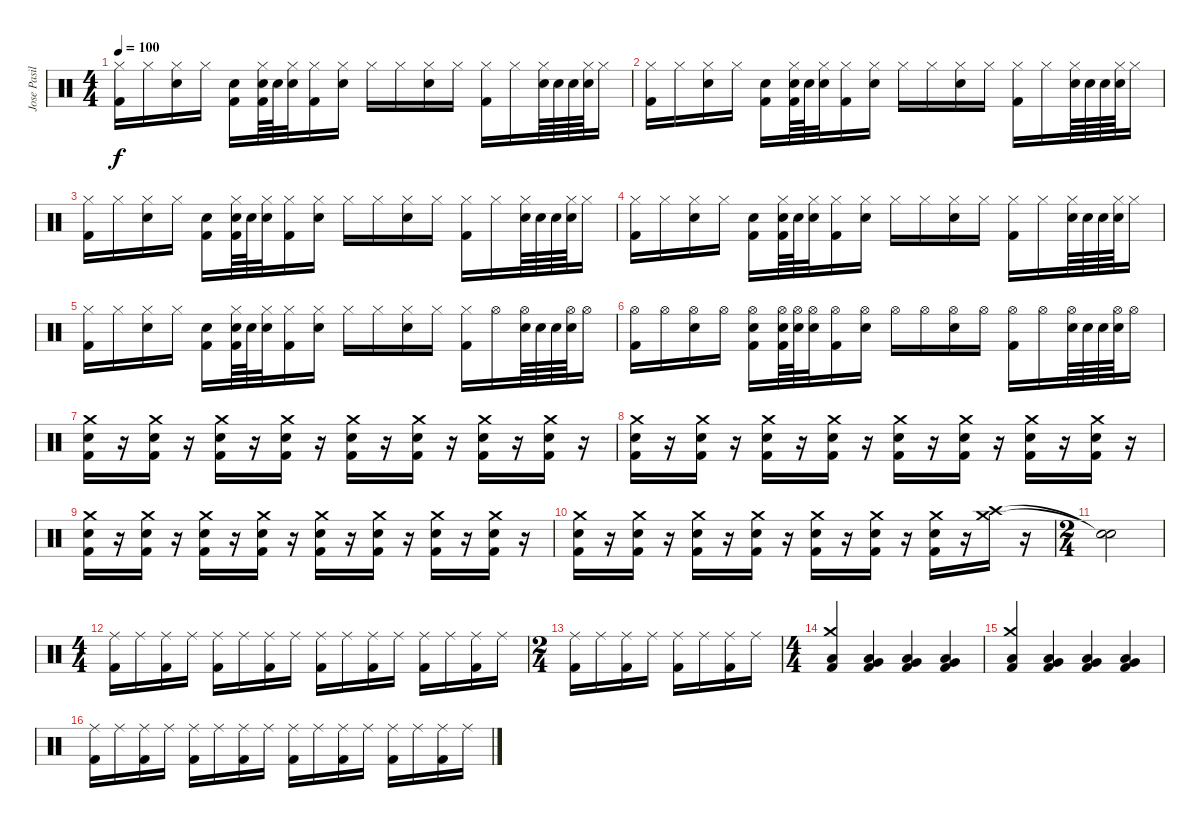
\track ("Jose Pasillas" "Jose Pasil") {instrument percussion}
\staff {score}
\articulation defaults
\ts (4 4)
\tempo 100
\clef neutral
\ks c
("Hi-Hat (closed)" "Kick (hit) 2").16{dy f} "Hi-Hat (closed)".16 ("Electric Snare (hit)" "Hi-Hat (closed)").16 "Hi-Hat (closed)".16 ("Electric Snare (hit)" "Kick (hit) 2").16 ("Kick (hit) 2" "Electric Snare (hit)" "Hi-Hat (closed)").64 "Electric Snare (hit)".64 ("Electric Snare (hit)" "Hi-Hat (closed)").32 ("Hi-Hat (closed)" "Kick (hit) 2").16 ("Electric Snare (hit)" "Hi-Hat (closed)").16 "Hi-Hat (closed)".16 "Hi-Hat (closed)".16 ("Electric Snare (hit)" "Hi-Hat (closed)").16 "Hi-Hat (closed)".16 ("Hi-Hat (closed)" "Kick (hit) 2").16 "Hi-Hat (closed)".16 ("Electric Snare (hit)" "Hi-Hat (closed)").64 "Electric Snare (hit)".64 "Electric Snare (hit)".64 ("Electric Snare (hit)" "Hi-Hat (closed)").64 "Hi-Hat (closed)".16 |
("Hi-Hat (closed)" "Kick (hit) 2").16 "Hi-Hat (closed)".16 ("Electric Snare (hit)" "Hi-Hat (closed)").16 "Hi-Hat (closed)".16 ("Electric Snare (hit)" "Kick (hit) 2").16 ("Kick (hit) 2" "Electric Snare (hit)" "Hi-Hat (closed)").64 "Electric Snare (hit)".64 ("Electric Snare (hit)" "Hi-Hat (closed)").32 ("Hi-Hat (closed)" "Kick (hit) 2").16 ("Electric Snare (hit)" "Hi-Hat (closed)").16 "Hi-Hat (closed)".16 "Hi-Hat (closed)".16 ("Electric Snare (hit)" "Hi-Hat (closed)").16 "Hi-Hat (closed)".16 ("Hi-Hat (closed)" "Kick (hit) 2").16 "Hi-Hat (closed)".16 ("Electric Snare (hit)" "Hi-Hat (closed)").64 "Electric Snare (hit)".64 "Electric Snare (hit)".64 ("Electric Snare (hit)" "Hi-Hat (closed)").64 "Hi-Hat (closed)".16 |
("Hi-Hat (closed)" "Kick (hit) 2").16 "Hi-Hat (closed)".16 ("Electric Snare (hit)" "Hi-Hat (closed)").16 "Hi-Hat (closed)".16 ("Electric Snare (hit)" "Kick (hit) 2").16 ("Kick (hit) 2" "Electric Snare (hit)" "Hi-Hat (closed)").64 "Electric Snare (hit)".64 ("Electric Snare (hit)" "Hi-Hat (closed)").32 ("Hi-Hat (closed)" "Kick (hit) 2").16 ("Electric Snare (hit)" "Hi-Hat (closed)").16 "Hi-Hat (closed)".16 "Hi-Hat (closed)".16 ("Electric Snare (hit)" "Hi-Hat (closed)").16 "Hi-Hat (closed)".16 ("Hi-Hat (closed)" "Kick (hit) 2").16 "Hi-Hat (closed)".16 ("Electric Snare (hit)" "Hi-Hat (closed)").64 "Electric Snare (hit)".64 "Electric Snare (hit)".64 ("Electric Snare (hit)" "Hi-Hat (closed)").64 "Hi-Hat (closed)".16 |
("Hi-Hat (closed)" "Kick (hit) 2").16 "Hi-Hat (closed)".16 ("Electric Snare (hit)" "Hi-Hat (closed)").16 "Hi-Hat (closed)".16 ("Electric Snare (hit)" "Kick (hit) 2").16 ("Kick (hit) 2" "Electric Snare (hit)" "Hi-Hat (closed)").64 "Electric Snare (hit)".64 ("Electric Snare (hit)" "Hi-Hat (closed)").32 ("Hi-Hat (closed)" "Kick (hit) 2").16 ("Electric Snare (hit)" "Hi-Hat (closed)").16 "Hi-Hat (closed)".16 "Hi-Hat (closed)".16 ("Electric Snare (hit)" "Hi-Hat (closed)").16 "Hi-Hat (closed)".16 ("Hi-Hat (closed)" "Kick (hit) 2").16 "Hi-Hat (closed)".16 ("Electric Snare (hit)" "Hi-Hat (closed)").64 "Electric Snare (hit)".64 "Electric Snare (hit)".64 ("Electric Snare (hit)" "Hi-Hat (closed)").64 "Hi-Hat (closed)".16 |
("Hi-Hat (closed)" "Kick (hit) 2").16 "Hi-Hat (closed)".16 ("Electric Snare (hit)" "Hi-Hat (closed)").16 "Hi-Hat (closed)".16 ("Electric Snare (hit)" "Kick (hit) 2").16 ("Kick (hit) 2" "Electric Snare (hit)" "Hi-Hat (closed)").64 "Electric Snare (hit)".64 ("Electric Snare (hit)" "Hi-Hat (closed)").32 ("Hi-Hat (closed)" "Kick (hit) 2").16 ("Electric Snare (hit)" "Hi-Hat (closed)").16 "Hi-Hat (closed)".16 "Hi-Hat (closed)".16 ("Electric Snare (hit)" "Hi-Hat (closed)").16 "Hi-Hat (closed)".16 ("Hi-Hat (closed)" "Kick (hit) 2").16 "Hi-Hat (open)".16 ("Electric Snare (hit)" "Hi-Hat (open)").64 "Electric Snare (hit)".64 "Electric Snare (hit)".64 ("Electric Snare (hit)" "Hi-Hat (open)").64 "Hi-Hat (open)".16 |
("Hi-Hat (open)" "Kick (hit) 2").16 "Hi-Hat (open)".16 ("Electric Snare (hit)" "Hi-Hat (open)").16 "Hi-Hat (open)".16 ("Hi-Hat (open)" "Electric Snare (hit)" "Kick (hit) 2").16 ("Kick (hit) 2" "Electric Snare (hit)" "Hi-Hat (open)").64 ("Electric Snare (hit)" "Hi-Hat (open)").64 ("Electric Snare (hit)" "Hi-Hat (open)").32 ("Hi-Hat (open)" "Kick (hit) 2").16 ("Electric Snare (hit)" "Hi-Hat (open)").16 "Hi-Hat (open)".16 "Hi-Hat (open)".16 ("Electric Snare (hit)" "Hi-Hat (open)").16 "Hi-Hat (open)".16 ("Hi-Hat (open)" "Kick (hit) 2").16 "Hi-Hat (open)".16 ("Electric Snare (hit)" "Hi-Hat (open)").64 "Electric Snare (hit)".64 "Electric Snare (hit)".64 ("Electric Snare (hit)" "Hi-Hat (open)").64 "Hi-Hat (open)".16 |
("Crash medium (hit)" "Electric Snare (hit)" "Kick (hit) 2").16 r.16 ("Crash medium (hit)" "Electric Snare (hit)" "Kick (hit) 2").16 r.16 ("Crash medium (hit)" "Electric Snare (hit)" "Kick (hit) 2").16 r.16 ("Crash medium (hit)" "Electric Snare (hit)" "Kick (hit) 2").16 r.16 ("Crash medium (hit)" "Electric Snare (hit)" "Kick (hit) 2").16 r.16 ("Crash medium (hit)" "Electric Snare (hit)" "Kick (hit) 2").16 r.16 ("Crash medium (hit)" "Electric Snare (hit)" "Kick (hit) 2").16 r.16 ("Crash medium (hit)" "Electric Snare (hit)" "Kick (hit) 2").16 r.16 |
("Crash medium (hit)" "Electric Snare (hit)" "Kick (hit) 2").16 r.16 ("Crash medium (hit)" "Electric Snare (hit)" "Kick (hit) 2").16 r.16 ("Crash medium (hit)" "Electric Snare (hit)" "Kick (hit) 2").16 r.16 ("Crash medium (hit)" "Electric Snare (hit)" "Kick (hit) 2").16 r.16 ("Crash medium (hit)" "Electric Snare (hit)" "Kick (hit) 2").16 r.16 ("Crash medium (hit)" "Electric Snare (hit)" "Kick (hit) 2").16 r.16 ("Crash medium (hit)" "Electric Snare (hit)" "Kick (hit) 2").16 r.16 ("Crash medium (hit)" "Electric Snare (hit)" "Kick (hit) 2").16 r.16 |
("Crash medium (hit)" "Electric Snare (hit)" "Kick (hit) 2").16 r.16 ("Crash medium (hit)" "Electric Snare (hit)" "Kick (hit) 2").16 r.16 ("Crash medium (hit)" "Electric Snare (hit)" "Kick (hit) 2").16 r.16 ("Crash medium (hit)" "Electric Snare (hit)" "Kick (hit) 2").16 r.16 ("Crash medium (hit)" "Electric Snare (hit)" "Kick (hit) 2").16 r.16 ("Crash medium (hit)" "Electric Snare (hit)" "Kick (hit) 2").16 r.16 ("Crash medium (hit)" "Electric Snare (hit)" "Kick (hit) 2").16 r.16 ("Crash medium (hit)" "Electric Snare (hit)" "Kick (hit) 2").16 r.16 |
("Crash medium (hit)" "Electric Snare (hit)" "Kick (hit) 2").16 r.16 ("Crash medium (hit)" "Electric Snare (hit)" "Kick (hit) 2").16 r.16 ("Crash medium (hit)" "Electric Snare (hit)" "Kick (hit) 2").16 r.16 ("Crash medium (hit)" "Electric Snare (hit)" "Kick (hit) 2").16 r.16 ("Crash medium (hit)" "Electric Snare (hit)" "Kick (hit) 2").16 r.16 ("Crash medium (hit)" "Electric Snare (hit)" "Kick (hit) 2").16 r.16 ("Crash medium (hit)" "Electric Snare (hit)" "Kick (hit) 2").16 r.16 ("Crash high (hit)" "Crash medium (hit)").16 r.16 |
\ts (2 4)
("Snare (hit)"{t} "Snare (hit)"{t}).2 |
\ts (4 4)
("Ride (middle)" "Kick (hit) 2").16 "Ride (middle)".16 ("Ride (middle)" "Kick (hit) 2").16 "Ride (middle)".16 ("Ride (middle)" "Kick (hit) 2").16 "Ride (middle)".16 ("Ride (middle)" "Kick (hit) 2").16 "Ride (middle)".16 ("Ride (middle)" "Kick (hit) 2").16 "Ride (middle)".16 ("Ride (middle)" "Kick (hit) 2").16 "Ride (middle)".16 ("Ride (middle)" "Kick (hit) 2").16 "Ride (middle)".16 ("Ride (middle)" "Kick (hit) 2").16 "Ride (middle)".16 |
\ts (2 4)
("Ride (middle)" "Kick (hit) 2").16 "Ride (middle)".16 ("Ride (middle)" "Kick (hit) 2").16 "Ride (middle)".16 ("Ride (middle)" "Kick (hit) 2").16 "Ride (middle)".16 ("Ride (middle)" "Kick (hit) 2").16 "Ride (middle)".16 |
\ts (4 4)
("Kick (hit) 2" "Crash medium (hit)" "Low Floor Tom (hit)").4 ("Kick (hit) 2" "Very Low Tom (hit)" "Low Floor Tom (hit)").4 ("Kick (hit) 2" "Very Low Tom (hit)" "Low Floor Tom (hit)").4 ("Kick (hit) 2" "Very Low Tom (hit)" "Low Floor Tom (hit)").4 |
("Kick (hit) 2" "Crash medium (hit)" "Low Floor Tom (hit)").4 ("Kick (hit) 2" "Very Low Tom (hit)" "Low Floor Tom (hit)").4 ("Kick (hit) 2" "Very Low Tom (hit)" "Low Floor Tom (hit)").4 ("Kick (hit) 2" "Very Low Tom (hit)" "Low Floor Tom (hit)").4 |
("Ride (middle)" "Kick (hit) 2").16 "Ride (middle)".16 ("Ride (middle)" "Kick (hit) 2").16 "Ride (middle)".16 ("Ride (middle)" "Kick (hit) 2").16 "Ride (middle)".16 ("Ride (middle)" "Kick (hit) 2").16 "Ride (middle)".16 ("Ride (middle)" "Kick (hit) 2").16 "Ride (middle)".16 ("Ride (middle)" "Kick (hit) 2").16 "Ride (middle)".16 ("Ride (middle)" "Kick (hit) 2").16 "Ride (middle)".16 ("Ride (middle)" "Kick (hit) 2").16 "Ride (middle)".16
